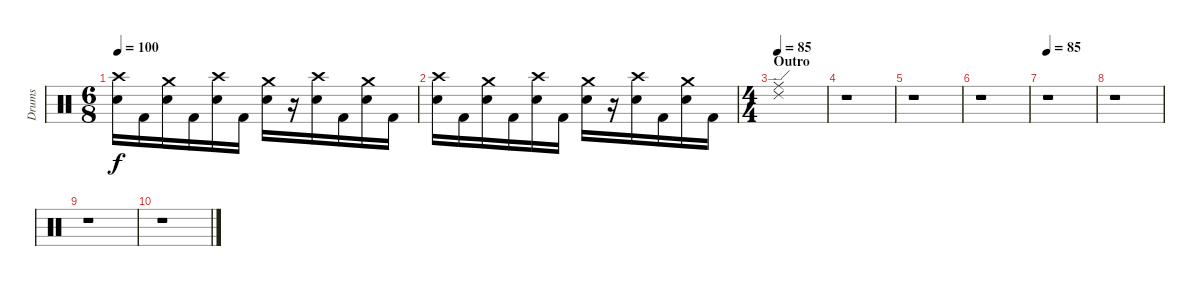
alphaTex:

\track ("Drums" "Drums") {instrument percussion}
\staff {score}
\articulation defaults
\ts (6 8)
\tempo 100
\clef neutral
\ks c
("Crash high (hit)" "Electric Snare (hit)").16{dy f} "Kick (hit) 2".16 ("Crash medium (hit)" "Electric Snare (hit)").16 "Kick (hit) 2".16 ("Crash high (hit)" "Electric Snare (hit)").16 "Kick (hit) 2".16 ("Crash medium (hit)" "Electric Snare (hit)").16 r.16 ("Crash high (hit)" "Electric Snare (hit)").16 "Kick (hit) 2".16 ("Crash medium (hit)" "Electric Snare (hit)").16 "Kick (hit) 2".16 |
("Crash high (hit)" "Electric Snare (hit)").16 "Kick (hit) 2".16 ("Crash medium (hit)" "Electric Snare (hit)").16 "Kick (hit) 2".16 ("Crash high (hit)" "Electric Snare (hit)").16 "Kick (hit) 2".16 ("Crash medium (hit)" "Electric Snare (hit)").16 r.16 ("Crash high (hit)" "Electric Snare (hit)").16 "Kick (hit) 2".16 ("Crash medium (hit)" "Electric Snare (hit)").16 "Kick (hit) 2".16 |
\ts (4 4)
\section ("" "Outro")
\tempo 85
("Ride (edge) 2" "Ride (middle)").1 |
r.1 |
r.1 |
r.1 |
\tempo 85
r.1 |
r.1 |
r.1 |
r.1
